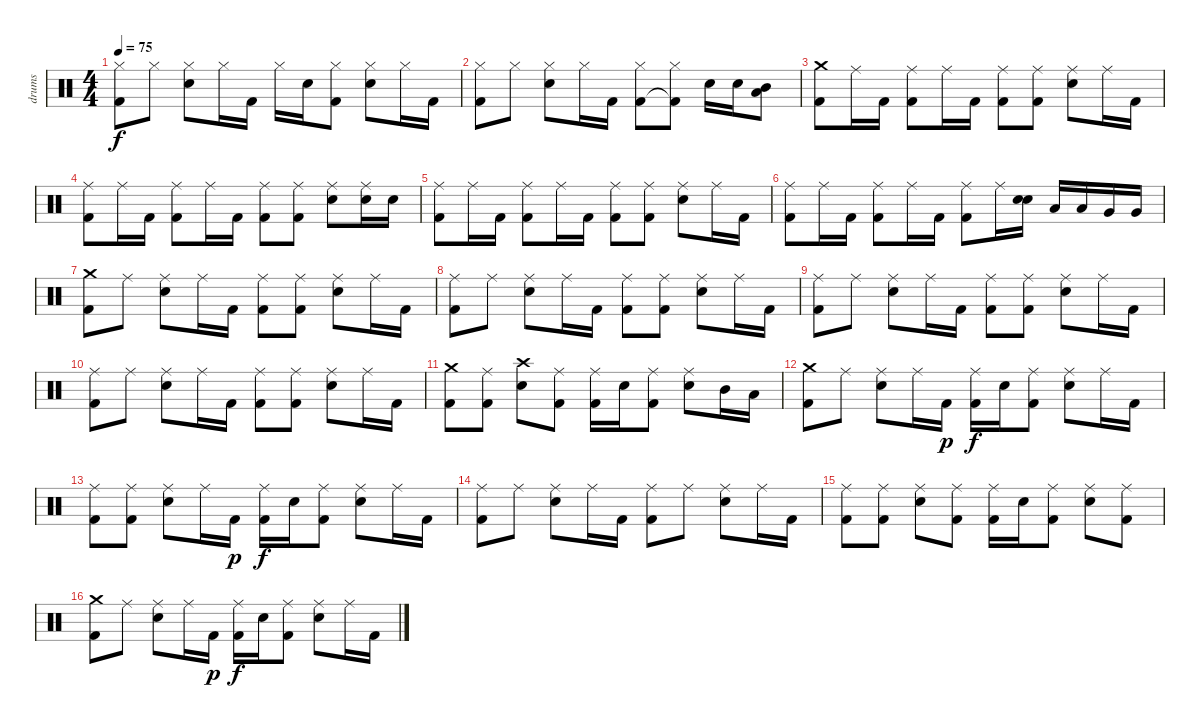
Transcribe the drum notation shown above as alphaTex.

\track ("drums" "drums") {instrument percussion}
\staff {score}
\articulation defaults
\ts (4 4)
\tempo 75
\clef neutral
\ks c
("Hi-Hat (closed)" "Kick (hit) 2").8{dy f} "Hi-Hat (closed)".8 ("Hi-Hat (closed)" "Snare (hit) 2").8 "Hi-Hat (closed)".16 "Kick (hit) 2".16 "Hi-Hat (closed)".16 "Snare (hit) 2".16 ("Hi-Hat (closed)" "Kick (hit) 2").8 ("Hi-Hat (closed)" "Snare (hit) 2").8 "Hi-Hat (closed)".16 "Kick (hit) 2".16 |
("Hi-Hat (closed)" "Kick (hit) 2").8 "Hi-Hat (closed)".8 ("Hi-Hat (closed)" "Snare (hit) 2").8 "Hi-Hat (closed)".16 "Kick (hit) 2".16 ("Hi-Hat (closed)" "Kick (hit) 2").8 ("Hi-Hat (closed)" "Kick (hit) 2"{t}).8 "Snare (hit) 2".16 "Snare (hit) 2".16 ("Mid Tom (hit)" "Low Tom (hit)").8 |
("Crash medium (hit)" "Kick (hit) 2").8 "Ride (middle)".16 "Kick (hit) 2".16 ("Ride (middle)" "Kick (hit) 2").8 "Ride (middle)".16 "Kick (hit) 2".16 ("Ride (middle)" "Kick (hit) 2").8 ("Ride (middle)" "Kick (hit) 2").8 ("Ride (middle)" "Snare (hit) 2").8 "Ride (middle)".16 "Kick (hit) 2".16 |
("Ride (middle)" "Kick (hit) 2").8 "Ride (middle)".16 "Kick (hit) 2".16 ("Ride (middle)" "Kick (hit) 2").8 "Ride (middle)".16 "Kick (hit) 2".16 ("Ride (middle)" "Kick (hit) 2").8 ("Ride (middle)" "Kick (hit) 2").8 ("Ride (middle)" "Snare (hit) 2").8 ("Ride (middle)" "Snare (hit) 2").16 "Snare (hit) 2".16 |
("Ride (middle)" "Kick (hit) 2").8 "Ride (middle)".16 "Kick (hit) 2".16 ("Ride (middle)" "Kick (hit) 2").8 "Ride (middle)".16 "Kick (hit) 2".16 ("Ride (middle)" "Kick (hit) 2").8 ("Ride (middle)" "Kick (hit) 2").8 ("Ride (middle)" "Snare (hit) 2").8 "Ride (middle)".16 "Kick (hit) 2".16 |
("Ride (middle)" "Kick (hit) 2").8 "Ride (middle)".16 "Kick (hit) 2".16 ("Ride (middle)" "Kick (hit) 2").8 "Ride (middle)".16 "Kick (hit) 2".16 ("Ride (middle)" "Kick (hit) 2").8 "Ride (middle)".16 ("Snare (hit) 2" "Snare (hit) 2").16 "Low Tom (hit)".16 "Low Tom (hit)".16 "Very Low Tom (hit)".16 "Very Low Tom (hit)".16 |
("Crash medium (hit)" "Kick (hit) 2").8 "Ride (middle)".8 ("Ride (middle)" "Snare (hit) 2").8 "Ride (middle)".16 "Kick (hit) 2".16 ("Ride (middle)" "Kick (hit) 2").8 ("Ride (middle)" "Kick (hit) 2").8 ("Ride (middle)" "Snare (hit) 2").8 "Ride (middle)".16 "Kick (hit) 2".16 |
("Ride (middle)" "Kick (hit) 2").8 "Ride (middle)".8 ("Ride (middle)" "Snare (hit) 2").8 "Ride (middle)".16 "Kick (hit) 2".16 ("Ride (middle)" "Kick (hit) 2").8 ("Ride (middle)" "Kick (hit) 2").8 ("Ride (middle)" "Snare (hit) 2").8 "Ride (middle)".16 "Kick (hit) 2".16 |
("Ride (middle)" "Kick (hit) 2").8 "Ride (middle)".8 ("Ride (middle)" "Snare (hit) 2").8 "Ride (middle)".16 "Kick (hit) 2".16 ("Ride (middle)" "Kick (hit) 2").8 ("Ride (middle)" "Kick (hit) 2").8 ("Ride (middle)" "Snare (hit) 2").8 "Ride (middle)".16 "Kick (hit) 2".16 |
("Ride (middle)" "Kick (hit) 2").8 "Ride (middle)".8 ("Ride (middle)" "Snare (hit) 2").8 "Ride (middle)".16 "Kick (hit) 2".16 ("Ride (middle)" "Kick (hit) 2").8 ("Ride (middle)" "Kick (hit) 2").8 ("Ride (middle)" "Snare (hit) 2").8 "Ride (middle)".16 "Kick (hit) 2".16 |
("Crash medium (hit)" "Kick (hit) 2").8 ("Ride (middle)" "Kick (hit) 2").8 ("Crash high (hit)" "Snare (hit) 2").8 ("Ride (middle)" "Kick (hit) 2").8 ("Ride (middle)" "Kick (hit) 2").16 "Snare (hit) 2".16 ("Ride (middle)" "Kick (hit) 2").8 ("Ride (middle)" "Snare (hit) 2").8 "Mid Tom (hit)".16 "Low Tom (hit)".16 |
("Crash medium (hit)" "Kick (hit) 2").8 "Ride (middle)".8 ("Ride (middle)" "Snare (hit) 2").8 "Ride (middle)".16 "Kick (hit) 2".16{dy p} ("Ride (middle)" "Kick (hit) 2").16{dy f} "Snare (hit) 2".16 ("Ride (middle)" "Kick (hit) 2").8 ("Ride (middle)" "Snare (hit) 2").8 "Ride (middle)".16 "Kick (hit) 2".16 |
("Ride (middle)" "Kick (hit) 2").8 ("Ride (middle)" "Kick (hit) 2").8 ("Ride (middle)" "Snare (hit) 2").8 "Ride (middle)".16 "Kick (hit) 2".16{dy p} ("Ride (middle)" "Kick (hit) 2").16{dy f} "Snare (hit) 2".16 ("Ride (middle)" "Kick (hit) 2").8 ("Ride (middle)" "Snare (hit) 2").8 "Ride (middle)".16 "Kick (hit) 2".16 |
("Ride (middle)" "Kick (hit) 2").8 "Ride (middle)".8 ("Ride (middle)" "Snare (hit) 2").8 "Ride (middle)".16 "Kick (hit) 2".16 ("Ride (middle)" "Kick (hit) 2").8 "Ride (middle)".8 ("Ride (middle)" "Snare (hit) 2").8 "Ride (middle)".16 "Kick (hit) 2".16 |
("Ride (middle)" "Kick (hit) 2").8 ("Ride (middle)" "Kick (hit) 2").8 ("Ride (middle)" "Snare (hit) 2").8 ("Ride (middle)" "Kick (hit) 2").8 ("Ride (middle)" "Kick (hit) 2").16 "Snare (hit) 2".16 ("Ride (middle)" "Kick (hit) 2").8 ("Ride (middle)" "Snare (hit) 2").8 ("Ride (middle)" "Kick (hit) 2").8 |
("Crash medium (hit)" "Kick (hit) 2").8 "Ride (middle)".8 ("Ride (middle)" "Snare (hit) 2").8 "Ride (middle)".16 "Kick (hit) 2".16{dy p} ("Ride (middle)" "Kick (hit) 2").16{dy f} "Snare (hit) 2".16 ("Ride (middle)" "Kick (hit) 2").8 ("Ride (middle)" "Snare (hit) 2").8 "Ride (middle)".16 "Kick (hit) 2".16
